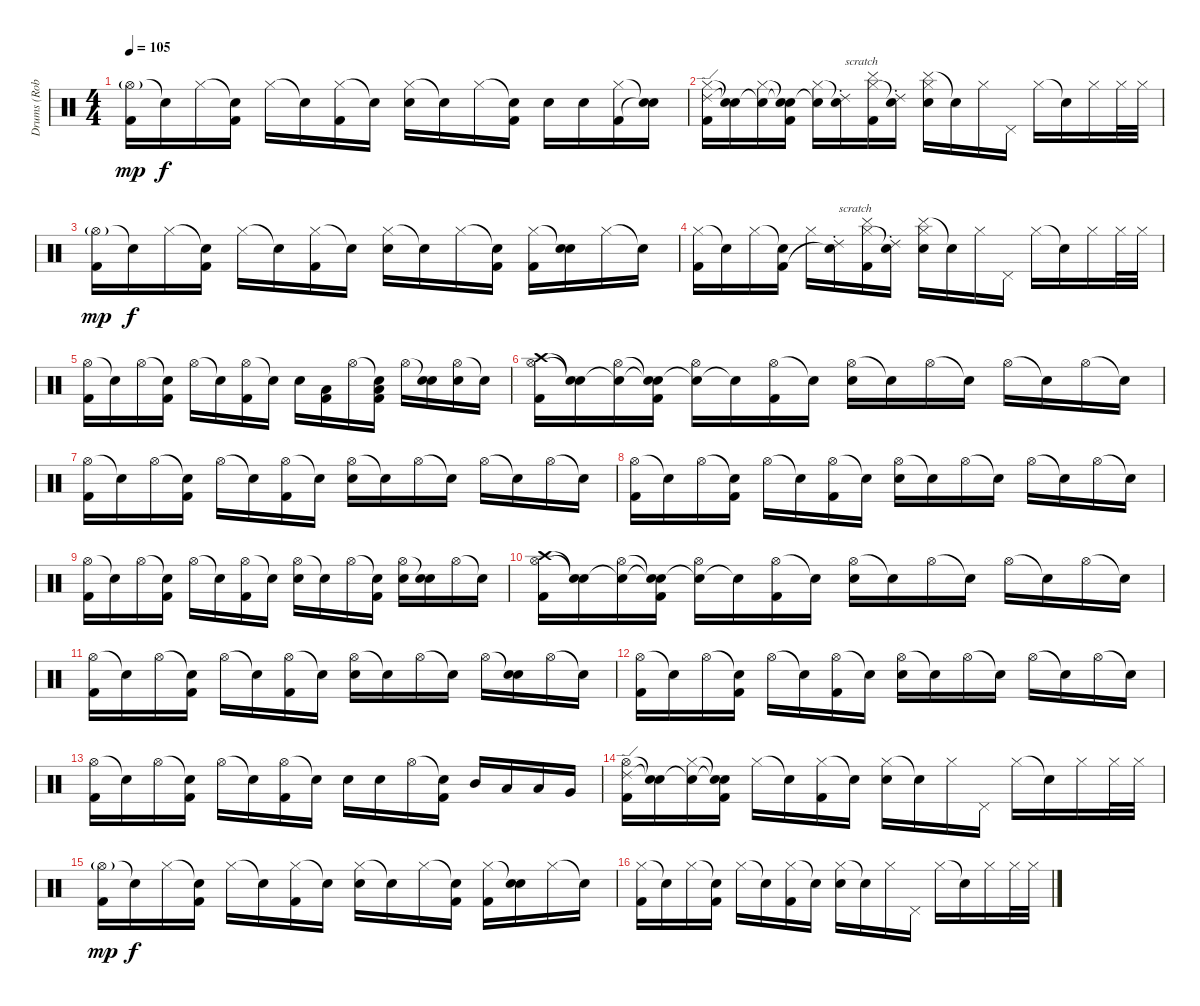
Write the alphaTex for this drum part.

\track ("Drums (Rob Bourdon)" "Drums (Rob") {instrument percussion}
\staff {score}
\articulation defaults
\ts (4 4)
\tempo 105
\clef neutral
\ks c
("Hi-Hat (open)"{g} "Kick (hit) 2").16{dy mp} "Snare (hit)"{t}.16{dy f} "Hi-Hat (closed)".16 ("Snare (hit)"{t} "Kick (hit) 2").16 "Hi-Hat (closed)".16 "Snare (hit)"{t}.16 ("Hi-Hat (closed)" "Kick (hit) 2").16 "Snare (hit)"{t}.16 ("Hi-Hat (closed)" "Electric Snare (hit)").16 "Snare (hit)"{t}.16 "Hi-Hat (closed)".16 ("Snare (hit)"{t} "Kick (hit) 2").16 "Electric Snare (hit)".16 "Electric Snare (hit)".16 ("Hi-Hat (closed)" "Kick (hit) 2").16 ("Snare (hit)"{t} "Snare (hit)"{t}).16 |
("Ride (edge) 2" "Hi-Hat (closed)" "Kick (hit) 2").16 ("Snare (hit)"{t} "Snare (hit)"{t}).16 ("Snare (hit)"{t} "Hi-Hat (closed)").16 ("Snare (hit)"{t} "Snare (hit)"{t} "Kick (hit) 2").16 ("Snare (hit)"{t} "Hi-Hat (closed)").16 ("Ride (choke) 2" "Snare (hit)"{t}).16{txt "scratch"} ("Cymbal (hit)" "Hi-Hat (closed)" "Kick (hit) 2").16 ("Ride (choke) 2" "Snare (hit)"{t}).16 ("Cymbal (hit)" "Hi-Hat (closed)" "Electric Snare (hit)").16 "Snare (hit)"{t}.16 "Hi-Hat (closed)".16 "Pedal Hi-Hat (hit)".16 "Hi-Hat (closed)".16 "Snare (hit)"{t}.16 "Hi-Hat (closed)".16 "Hi-Hat (closed)".32 "Hi-Hat (closed)".32 |
("Hi-Hat (open)"{g} "Kick (hit) 2").16{dy mp} "Snare (hit)"{t}.16{dy f} "Hi-Hat (closed)".16 ("Snare (hit)"{t} "Kick (hit) 2").16 "Hi-Hat (closed)".16 "Snare (hit)"{t}.16 ("Hi-Hat (closed)" "Kick (hit) 2").16 "Snare (hit)"{t}.16 ("Hi-Hat (closed)" "Electric Snare (hit)").16 "Snare (hit)"{t}.16 "Hi-Hat (closed)".16 ("Snare (hit)"{t} "Kick (hit) 2").16 ("Hi-Hat (closed)" "Kick (hit) 2").16 ("Snare (hit)"{t} "Electric Snare (hit)").16 "Hi-Hat (closed)".16 "Snare (hit)"{t}.16 |
("Hi-Hat (closed)" "Kick (hit) 2").16 "Snare (hit)"{t}.16 "Hi-Hat (closed)".16 ("Snare (hit)"{t} "Kick (hit) 2").16 "Hi-Hat (closed)".16 ("Ride (choke) 2" "Snare (hit)"{t}).16{txt "scratch"} ("Cymbal (hit)" "Hi-Hat (closed)" "Kick (hit) 2").16 ("Ride (choke) 2" "Snare (hit)"{t}).16 ("Cymbal (hit)" "Hi-Hat (closed)" "Electric Snare (hit)").16 "Snare (hit)"{t}.16 "Hi-Hat (closed)".16 "Pedal Hi-Hat (hit)".16 "Hi-Hat (closed)".16 "Snare (hit)"{t}.16 "Hi-Hat (closed)".16 "Hi-Hat (closed)".32 "Hi-Hat (closed)".32 |
("Hi-Hat (open)" "Kick (hit) 2").16 "Snare (hit)"{t}.16 "Hi-Hat (open)".16 ("Snare (hit)"{t} "Kick (hit) 2").16 "Hi-Hat (open)".16 "Snare (hit)"{t}.16 ("Hi-Hat (open)" "Kick (hit) 2").16 "Snare (hit)"{t}.16 "Electric Snare (hit)".16 ("Low Tom (hit)" "Kick (hit) 2").16 "Hi-Hat (open)".16 ("Snare (hit)"{t} "Low Tom (hit)" "Kick (hit) 2").16 "Hi-Hat (open)".16 ("Snare (hit)"{t} "Electric Snare (hit)").16 ("Hi-Hat (open)" "Electric Snare (hit)").16 "Snare (hit)"{t}.16 |
("Crash high (hit)" "Hi-Hat (open)" "Kick (hit) 2").16{volume 12} ("Snare (hit)"{t} "Snare (hit)"{t}).16 ("Snare (hit)"{t} "Hi-Hat (open)").16 ("Snare (hit)"{t} "Snare (hit)"{t} "Kick (hit) 2").16 ("Snare (hit)"{t} "Hi-Hat (open)").16 "Snare (hit)"{t}.16 ("Hi-Hat (open)" "Kick (hit) 2").16 "Snare (hit)"{t}.16 ("Hi-Hat (open)" "Electric Snare (hit)").16 "Snare (hit)"{t}.16 "Hi-Hat (open)".16 "Snare (hit)"{t}.16 "Hi-Hat (open)".16 "Snare (hit)"{t}.16 "Hi-Hat (open)".16 "Snare (hit)"{t}.16 |
("Hi-Hat (open)" "Kick (hit) 2").16 "Snare (hit)"{t}.16 "Hi-Hat (open)".16 ("Snare (hit)"{t} "Kick (hit) 2").16 "Hi-Hat (open)".16 "Snare (hit)"{t}.16 ("Hi-Hat (open)" "Kick (hit) 2").16 "Snare (hit)"{t}.16 ("Hi-Hat (open)" "Electric Snare (hit)").16 "Snare (hit)"{t}.16 "Hi-Hat (open)".16 "Snare (hit)"{t}.16 "Hi-Hat (open)".16 "Snare (hit)"{t}.16 "Hi-Hat (open)".16 "Snare (hit)"{t}.16 |
("Hi-Hat (open)" "Kick (hit) 2").16 "Snare (hit)"{t}.16 "Hi-Hat (open)".16 ("Snare (hit)"{t} "Kick (hit) 2").16 "Hi-Hat (open)".16 "Snare (hit)"{t}.16 ("Hi-Hat (open)" "Kick (hit) 2").16 "Snare (hit)"{t}.16 ("Hi-Hat (open)" "Electric Snare (hit)").16 "Snare (hit)"{t}.16 "Hi-Hat (open)".16 "Snare (hit)"{t}.16 "Hi-Hat (open)".16 "Snare (hit)"{t}.16 "Hi-Hat (open)".16 "Snare (hit)"{t}.16 |
("Hi-Hat (open)" "Kick (hit) 2").16 "Snare (hit)"{t}.16 "Hi-Hat (open)".16 ("Snare (hit)"{t} "Kick (hit) 2").16 "Hi-Hat (open)".16 "Snare (hit)"{t}.16 ("Hi-Hat (open)" "Kick (hit) 2").16 "Snare (hit)"{t}.16 ("Hi-Hat (open)" "Electric Snare (hit)").16 "Snare (hit)"{t}.16 "Hi-Hat (open)".16 ("Snare (hit)"{t} "Kick (hit) 2").16 ("Hi-Hat (open)" "Electric Snare (hit)").16 ("Snare (hit)"{t} "Electric Snare (hit)").16 "Hi-Hat (open)".16 "Snare (hit)"{t}.16 |
("Crash high (hit)" "Hi-Hat (open)" "Kick (hit) 2").16{volume 12} ("Snare (hit)"{t} "Snare (hit)"{t}).16 ("Snare (hit)"{t} "Hi-Hat (open)").16 ("Snare (hit)"{t} "Snare (hit)"{t} "Kick (hit) 2").16 ("Snare (hit)"{t} "Hi-Hat (open)").16 "Snare (hit)"{t}.16 ("Hi-Hat (open)" "Kick (hit) 2").16 "Snare (hit)"{t}.16 ("Hi-Hat (open)" "Electric Snare (hit)").16 "Snare (hit)"{t}.16 "Hi-Hat (open)".16 "Snare (hit)"{t}.16 "Hi-Hat (open)".16 "Snare (hit)"{t}.16 "Hi-Hat (open)".16 "Snare (hit)"{t}.16 |
("Hi-Hat (open)" "Kick (hit) 2").16 "Snare (hit)"{t}.16 "Hi-Hat (open)".16 ("Snare (hit)"{t} "Kick (hit) 2").16 "Hi-Hat (open)".16 "Snare (hit)"{t}.16 ("Hi-Hat (open)" "Kick (hit) 2").16 "Snare (hit)"{t}.16 ("Hi-Hat (open)" "Electric Snare (hit)").16 "Snare (hit)"{t}.16 "Hi-Hat (open)".16 "Snare (hit)"{t}.16 "Hi-Hat (open)".16 ("Snare (hit)"{t} "Electric Snare (hit)").16 "Hi-Hat (open)".16 "Snare (hit)"{t}.16 |
("Hi-Hat (open)" "Kick (hit) 2").16 "Snare (hit)"{t}.16 "Hi-Hat (open)".16 ("Snare (hit)"{t} "Kick (hit) 2").16 "Hi-Hat (open)".16 "Snare (hit)"{t}.16 ("Hi-Hat (open)" "Kick (hit) 2").16 "Snare (hit)"{t}.16 ("Hi-Hat (open)" "Electric Snare (hit)").16 "Snare (hit)"{t}.16 "Hi-Hat (open)".16 "Snare (hit)"{t}.16 "Hi-Hat (open)".16 "Snare (hit)"{t}.16 "Hi-Hat (open)".16 "Snare (hit)"{t}.16 |
("Hi-Hat (open)" "Kick (hit) 2").16 "Snare (hit)"{t}.16 "Hi-Hat (open)".16 ("Snare (hit)"{t} "Kick (hit) 2").16 "Hi-Hat (open)".16 "Snare (hit)"{t}.16 ("Hi-Hat (open)" "Kick (hit) 2").16 "Snare (hit)"{t}.16 "Electric Snare (hit)".16 "Electric Snare (hit)".16 "Hi-Hat (open)".16 ("Snare (hit)"{t} "Kick (hit) 2").16 "Mid Tom (hit)".16 "Low Tom (hit)".16 "Low Tom (hit)".16 "Very Low Tom (hit)".16 |
("Ride (edge) 2" "Hi-Hat (open)" "Kick (hit) 2").16 ("Snare (hit)"{t} "Snare (hit)"{t}).16 ("Snare (hit)"{t} "Hi-Hat (closed)").16 ("Snare (hit)"{t} "Snare (hit)"{t} "Kick (hit) 2").16 "Hi-Hat (closed)".16 "Snare (hit)"{t}.16 ("Hi-Hat (closed)" "Kick (hit) 2").16 "Snare (hit)"{t}.16 ("Hi-Hat (closed)" "Electric Snare (hit)").16 "Snare (hit)"{t}.16 "Hi-Hat (closed)".16 "Pedal Hi-Hat (hit)".16 "Hi-Hat (closed)".16 "Snare (hit)"{t}.16 "Hi-Hat (closed)".16 "Hi-Hat (closed)".32 "Hi-Hat (closed)".32 |
("Hi-Hat (open)"{g} "Kick (hit) 2").16{dy mp} "Snare (hit)"{t}.16{dy f} "Hi-Hat (closed)".16 ("Snare (hit)"{t} "Kick (hit) 2").16 "Hi-Hat (closed)".16 "Snare (hit)"{t}.16 ("Hi-Hat (closed)" "Kick (hit) 2").16 "Snare (hit)"{t}.16 ("Hi-Hat (closed)" "Electric Snare (hit)").16 "Snare (hit)"{t}.16 "Hi-Hat (closed)".16 ("Snare (hit)"{t} "Kick (hit) 2").16 ("Hi-Hat (closed)" "Kick (hit) 2").16 ("Snare (hit)"{t} "Electric Snare (hit)").16 "Hi-Hat (closed)".16 "Snare (hit)"{t}.16 |
("Hi-Hat (closed)" "Kick (hit) 2").16 "Snare (hit)"{t}.16 "Hi-Hat (closed)".16 ("Snare (hit)"{t} "Kick (hit) 2").16 "Hi-Hat (closed)".16 "Snare (hit)"{t}.16 ("Hi-Hat (closed)" "Kick (hit) 2").16 "Snare (hit)"{t}.16 ("Hi-Hat (closed)" "Electric Snare (hit)").16 "Snare (hit)"{t}.16 "Hi-Hat (closed)".16 "Pedal Hi-Hat (hit)".16 "Hi-Hat (closed)".16 "Snare (hit)"{t}.16 "Hi-Hat (closed)".16 "Hi-Hat (closed)".32 "Hi-Hat (closed)".32
